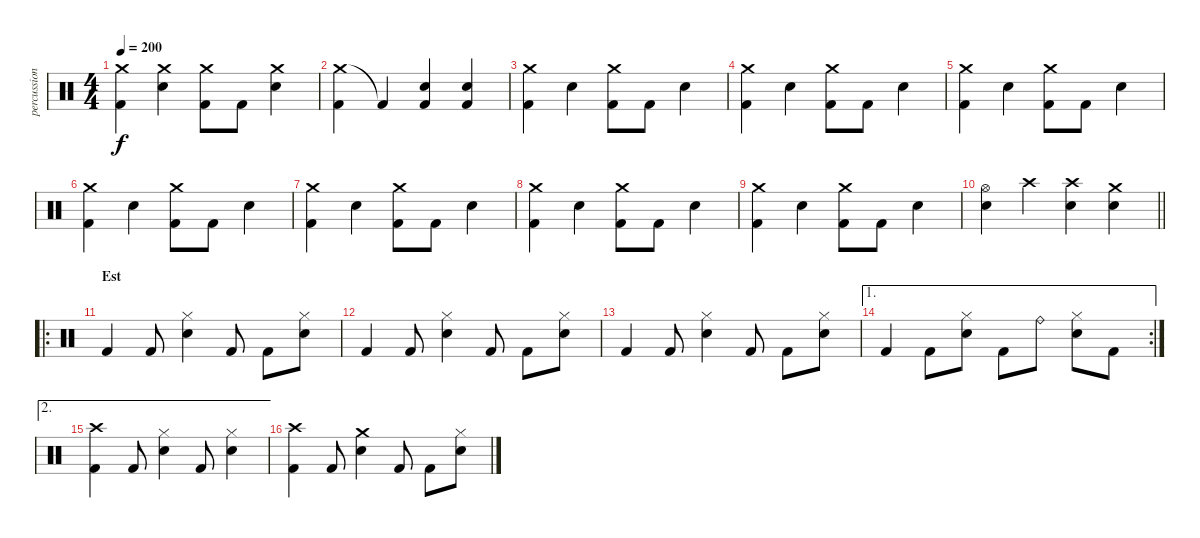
\track ("percussion" "percussion") {instrument percussion}
\staff {score}
\articulation defaults
\ts (4 4)
\tempo 200
\clef neutral
\ks c
("Kick (hit) 2" "Crash medium (hit)").4{dy f} ("Electric Snare (hit)" "Crash medium (hit)").4 ("Kick (hit) 2" "Crash medium (hit)").8 "Kick (hit) 2".8 ("Electric Snare (hit)" "Crash medium (hit)").4 |
("Crash medium (hit)" "Kick (hit) 2").4 "Kick (hit) 2"{t}.4 ("Electric Snare (hit)" "Kick (hit) 2").4 ("Electric Snare (hit)" "Kick (hit) 2").4 |
("Kick (hit) 2" "Crash medium (hit)").4 "Electric Snare (hit)".4 ("Kick (hit) 2" "Crash medium (hit)").8 "Kick (hit) 2".8 "Electric Snare (hit)".4 |
("Kick (hit) 2" "Crash medium (hit)").4 "Electric Snare (hit)".4 ("Kick (hit) 2" "Crash medium (hit)").8 "Kick (hit) 2".8 "Electric Snare (hit)".4 |
("Kick (hit) 2" "Crash medium (hit)").4 "Electric Snare (hit)".4 ("Kick (hit) 2" "Crash medium (hit)").8 "Kick (hit) 2".8 "Electric Snare (hit)".4 |
("Kick (hit) 2" "Crash medium (hit)").4 "Electric Snare (hit)".4 ("Kick (hit) 2" "Crash medium (hit)").8 "Kick (hit) 2".8 "Electric Snare (hit)".4 |
("Kick (hit) 2" "Crash medium (hit)").4 "Electric Snare (hit)".4 ("Kick (hit) 2" "Crash medium (hit)").8 "Kick (hit) 2".8 "Electric Snare (hit)".4 |
("Kick (hit) 2" "Crash medium (hit)").4 "Electric Snare (hit)".4 ("Kick (hit) 2" "Crash medium (hit)").8 "Kick (hit) 2".8 "Electric Snare (hit)".4 |
("Kick (hit) 2" "Crash medium (hit)").4 "Electric Snare (hit)".4 ("Kick (hit) 2" "Crash medium (hit)").8 "Kick (hit) 2".8 "Electric Snare (hit)".4 |
\barLineRight lightlight
("Hi-Hat (open)" "Electric Snare (hit)").4 "Crash high (hit)".4 ("Crash high (hit)" "Electric Snare (hit)").4 ("Crash medium (hit)" "Electric Snare (hit)").4 |
\ro
\section ("" "Est")
"Kick (hit) 2".4 "Kick (hit) 2".8 ("Electric Snare (hit)" "Hi-Hat (closed)").4 "Kick (hit) 2".8 "Kick (hit) 2".8 ("Electric Snare (hit)" "Hi-Hat (closed)").8 |
"Kick (hit) 2".4 "Kick (hit) 2".8 ("Electric Snare (hit)" "Hi-Hat (closed)").4 "Kick (hit) 2".8 "Kick (hit) 2".8 ("Electric Snare (hit)" "Hi-Hat (closed)").8 |
"Kick (hit) 2".4 "Kick (hit) 2".8 ("Electric Snare (hit)" "Hi-Hat (closed)").4 "Kick (hit) 2".8 "Kick (hit) 2".8 ("Electric Snare (hit)" "Hi-Hat (closed)").8 |
\ae 1
\rc 2 "Kick (hit) 2".4 "Kick (hit) 2".8
("Electric Snare (hit)" "Hi-Hat (closed)").8 "Kick (hit) 2".8 "Ride (bell)".8 ("Electric Snare (hit)" "Hi-Hat (closed)").8 "Kick (hit) 2".8 |
\ae 2
("Kick (hit) 2" "Crash high (hit)").4 "Kick (hit) 2".8 ("Electric Snare (hit)" "Hi-Hat (closed)").4 "Kick (hit) 2".8 ("Electric Snare (hit)" "Hi-Hat (closed)").4 |
("Kick (hit) 2" "Crash high (hit)").4 "Kick (hit) 2".8 ("Electric Snare (hit)" "Crash medium (hit)").4 "Kick (hit) 2".8 "Kick (hit) 2".8 ("Electric Snare (hit)" "Hi-Hat (closed)").8
